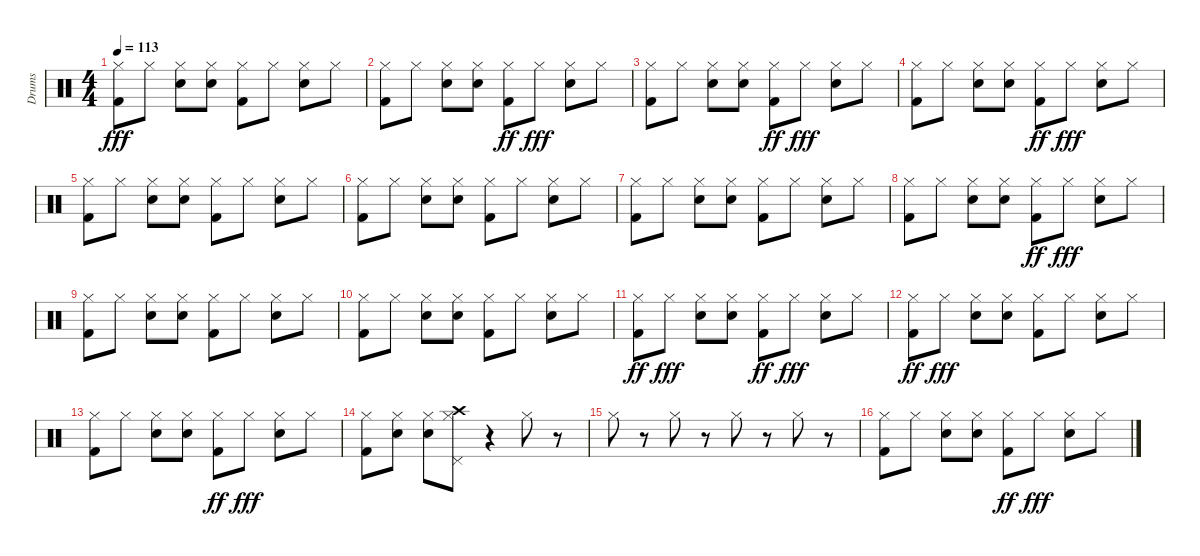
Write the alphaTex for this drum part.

\track ("Drums" "Drums") {instrument percussion}
\staff {score}
\articulation defaults
\ts (4 4)
\tempo 113
\clef neutral
\ks c
("Hi-Hat (closed)" "Kick (hit) 2").8{dy fff} "Hi-Hat (closed)".8 ("Hi-Hat (closed)" "Electric Snare (hit)").8 ("Hi-Hat (closed)" "Electric Snare (hit)").8 ("Hi-Hat (closed)" "Kick (hit) 2").8 "Hi-Hat (closed)".8 ("Hi-Hat (closed)" "Electric Snare (hit)").8 "Hi-Hat (closed)".8 |
("Hi-Hat (closed)" "Kick (hit) 2").8 "Hi-Hat (closed)".8 ("Hi-Hat (closed)" "Electric Snare (hit)").8 ("Hi-Hat (closed)" "Electric Snare (hit)").8 ("Hi-Hat (closed)" "Kick (hit) 2").8{dy ff} "Hi-Hat (closed)".8{dy fff} ("Hi-Hat (closed)" "Electric Snare (hit)").8 "Hi-Hat (closed)".8 |
("Hi-Hat (closed)" "Kick (hit) 2").8 "Hi-Hat (closed)".8 ("Hi-Hat (closed)" "Electric Snare (hit)").8 ("Hi-Hat (closed)" "Electric Snare (hit)").8 ("Hi-Hat (closed)" "Kick (hit) 2").8{dy ff} "Hi-Hat (closed)".8{dy fff} ("Hi-Hat (closed)" "Electric Snare (hit)").8 "Hi-Hat (closed)".8 |
("Hi-Hat (closed)" "Kick (hit) 2").8 "Hi-Hat (closed)".8 ("Hi-Hat (closed)" "Electric Snare (hit)").8 ("Hi-Hat (closed)" "Electric Snare (hit)").8 ("Hi-Hat (closed)" "Kick (hit) 2").8{dy ff} "Hi-Hat (closed)".8{dy fff} ("Hi-Hat (closed)" "Electric Snare (hit)").8 "Hi-Hat (closed)".8 |
("Hi-Hat (closed)" "Kick (hit) 2").8 "Hi-Hat (closed)".8 ("Hi-Hat (closed)" "Electric Snare (hit)").8 ("Hi-Hat (closed)" "Electric Snare (hit)").8 ("Hi-Hat (closed)" "Kick (hit) 2").8 "Hi-Hat (closed)".8 ("Hi-Hat (closed)" "Electric Snare (hit)").8 "Hi-Hat (closed)".8 |
("Hi-Hat (closed)" "Kick (hit) 2").8 "Hi-Hat (closed)".8 ("Hi-Hat (closed)" "Electric Snare (hit)").8 ("Hi-Hat (closed)" "Electric Snare (hit)").8 ("Hi-Hat (closed)" "Kick (hit) 2").8 "Hi-Hat (closed)".8 ("Hi-Hat (closed)" "Electric Snare (hit)").8 "Hi-Hat (closed)".8 |
("Hi-Hat (closed)" "Kick (hit) 2").8 "Hi-Hat (closed)".8 ("Hi-Hat (closed)" "Electric Snare (hit)").8 ("Hi-Hat (closed)" "Electric Snare (hit)").8 ("Hi-Hat (closed)" "Kick (hit) 2").8 "Hi-Hat (closed)".8 ("Hi-Hat (closed)" "Electric Snare (hit)").8 "Hi-Hat (closed)".8 |
("Hi-Hat (closed)" "Kick (hit) 2").8 "Hi-Hat (closed)".8 ("Hi-Hat (closed)" "Electric Snare (hit)").8 ("Hi-Hat (closed)" "Electric Snare (hit)").8 ("Hi-Hat (closed)" "Kick (hit) 2").8{dy ff} "Hi-Hat (closed)".8{dy fff} ("Hi-Hat (closed)" "Electric Snare (hit)").8 "Hi-Hat (closed)".8 |
("Hi-Hat (closed)" "Kick (hit) 2").8 "Hi-Hat (closed)".8 ("Hi-Hat (closed)" "Electric Snare (hit)").8 ("Hi-Hat (closed)" "Electric Snare (hit)").8 ("Hi-Hat (closed)" "Kick (hit) 2").8 "Hi-Hat (closed)".8 ("Hi-Hat (closed)" "Electric Snare (hit)").8 "Hi-Hat (closed)".8 |
("Hi-Hat (closed)" "Kick (hit) 2").8 "Hi-Hat (closed)".8 ("Hi-Hat (closed)" "Electric Snare (hit)").8 ("Hi-Hat (closed)" "Electric Snare (hit)").8 ("Hi-Hat (closed)" "Kick (hit) 2").8 "Hi-Hat (closed)".8 ("Hi-Hat (closed)" "Electric Snare (hit)").8 "Hi-Hat (closed)".8 |
("Hi-Hat (closed)" "Kick (hit) 2").8{dy ff} "Hi-Hat (closed)".8{dy fff} ("Hi-Hat (closed)" "Electric Snare (hit)").8 ("Hi-Hat (closed)" "Electric Snare (hit)").8 ("Hi-Hat (closed)" "Kick (hit) 2").8{dy ff} "Hi-Hat (closed)".8{dy fff} ("Hi-Hat (closed)" "Electric Snare (hit)").8 "Hi-Hat (closed)".8 |
("Hi-Hat (closed)" "Kick (hit) 2").8{dy ff} "Hi-Hat (closed)".8{dy fff} ("Hi-Hat (closed)" "Electric Snare (hit)").8 ("Hi-Hat (closed)" "Electric Snare (hit)").8 ("Hi-Hat (closed)" "Kick (hit) 2").8 "Hi-Hat (closed)".8 ("Hi-Hat (closed)" "Electric Snare (hit)").8 "Hi-Hat (closed)".8 |
("Hi-Hat (closed)" "Kick (hit) 2").8 "Hi-Hat (closed)".8 ("Hi-Hat (closed)" "Electric Snare (hit)").8 ("Hi-Hat (closed)" "Electric Snare (hit)").8 ("Hi-Hat (closed)" "Kick (hit) 2").8{dy ff} "Hi-Hat (closed)".8{dy fff} ("Hi-Hat (closed)" "Electric Snare (hit)").8 "Hi-Hat (closed)".8 |
("Hi-Hat (closed)" "Kick (hit) 2").8 ("Hi-Hat (closed)" "Electric Snare (hit)").8 ("Hi-Hat (closed)" "Electric Snare (hit)").8 ("Hi-Hat (closed)" "Pedal Hi-Hat (hit)" "Crash high (hit)").8 r.4 "Hi-Hat (closed)".8 r.8 |
"Hi-Hat (closed)".8 r.8 "Hi-Hat (closed)".8 r.8 "Hi-Hat (closed)".8 r.8 "Hi-Hat (closed)".8 r.8 |
("Hi-Hat (closed)" "Kick (hit) 2").8 "Hi-Hat (closed)".8 ("Hi-Hat (closed)" "Electric Snare (hit)").8 ("Hi-Hat (closed)" "Electric Snare (hit)").8 ("Hi-Hat (closed)" "Kick (hit) 2").8{dy ff} "Hi-Hat (closed)".8{dy fff} ("Hi-Hat (closed)" "Electric Snare (hit)").8 "Hi-Hat (closed)".8
